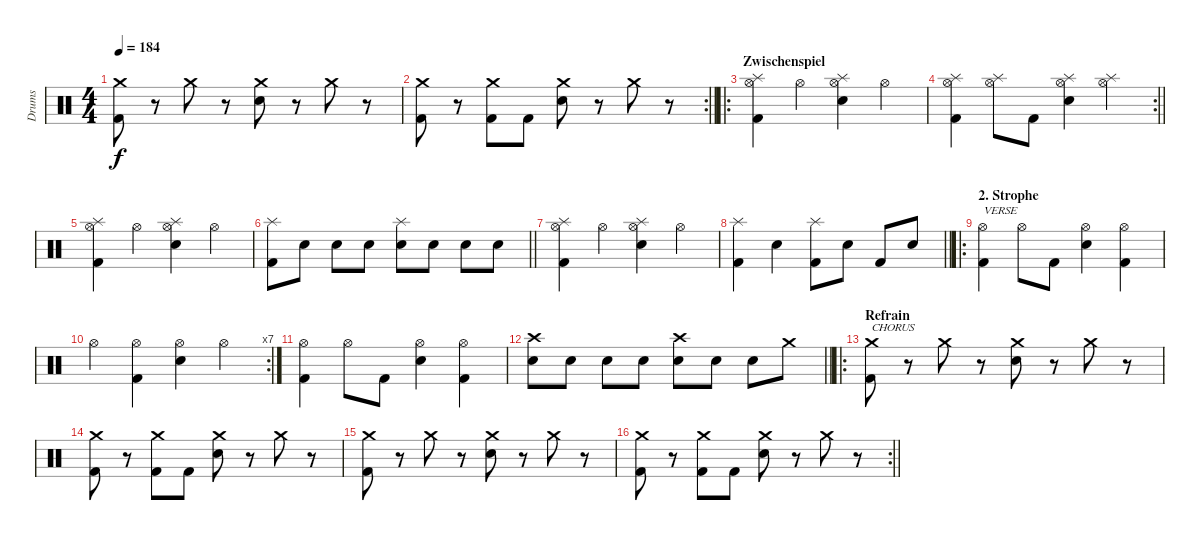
\track ("Drums" "Drums") {instrument percussion}
\staff {score}
\articulation defaults
\ts (4 4)
\tempo 184
\clef neutral
\ks c
("Crash medium (hit)" "Kick (hit) 2").8{dy f} r.8 "Crash medium (hit)".8 r.8 ("Crash medium (hit)" "Electric Snare (hit)").8 r.8 "Crash medium (hit)".8 r.8 |
\rc 2
\barLineRight lightlight
("Crash medium (hit)" "Kick (hit) 2").8 r.8 ("Crash medium (hit)" "Kick (hit) 2").8 "Kick (hit) 2".8 ("Crash medium (hit)" "Electric Snare (hit)").8 r.8 "Crash medium (hit)".8 r.8 |
\ro
\section ("" "Zwischenspiel")
("Splash (hit)" "Hi-Hat (open)" "Kick (hit) 2").4 "Hi-Hat (open)".4 ("Splash (hit)" "Hi-Hat (open)" "Electric Snare (hit)").4 "Hi-Hat (open)".4 |
\rc 2
\barLineRight lightlight
("Splash (hit)" "Hi-Hat (open)" "Kick (hit) 2").4 ("Splash (hit)" "Hi-Hat (open)").8 "Kick (hit) 2".8 ("Splash (hit)" "Hi-Hat (open)" "Electric Snare (hit)").4 ("Splash (hit)" "Hi-Hat (open)").4 |
("Splash (hit)" "Hi-Hat (open)" "Kick (hit) 2").4 "Hi-Hat (open)".4 ("Splash (hit)" "Hi-Hat (open)" "Electric Snare (hit)").4 "Hi-Hat (open)".4 |
\barLineRight lightlight
("Splash (hit)" "Kick (hit) 2").8 "Electric Snare (hit)".8 "Electric Snare (hit)".8 "Electric Snare (hit)".8 ("Splash (hit)" "Electric Snare (hit)").8 "Electric Snare (hit)".8 "Electric Snare (hit)".8 "Electric Snare (hit)".8 |
("Splash (hit)" "Hi-Hat (open)" "Kick (hit) 2").4 "Hi-Hat (open)".4 ("Splash (hit)" "Hi-Hat (open)" "Electric Snare (hit)").4 "Hi-Hat (open)".4 |
\barLineRight lightlight
("Splash (hit)" "Kick (hit) 2").4 "Electric Snare (hit)".4 ("Splash (hit)" "Kick (hit) 2").8 "Electric Snare (hit)".8 "Kick (hit) 2".8 "Electric Snare (hit)".8 |
\ro
\section ("" "2. Strophe")
("Hi-Hat (open)" "Kick (hit) 2").4{txt "VERSE"} "Hi-Hat (open)".8 "Kick (hit) 2".8 ("Hi-Hat (open)" "Electric Snare (hit)").4 ("Hi-Hat (open)" "Kick (hit) 2").4 |
\rc 7 "Hi-Hat (open)".4
("Hi-Hat (open)" "Kick (hit) 2").4 ("Hi-Hat (open)" "Electric Snare (hit)").4 "Hi-Hat (open)".4 |
("Hi-Hat (open)" "Kick (hit) 2").4 "Hi-Hat (open)".8 "Kick (hit) 2".8 ("Hi-Hat (open)" "Electric Snare (hit)").4 ("Hi-Hat (open)" "Kick (hit) 2").4 |
\barLineRight lightlight
("Crash high (hit)" "Electric Snare (hit)").8 "Electric Snare (hit)".8 "Electric Snare (hit)".8 "Electric Snare (hit)".8 ("Crash high (hit)" "Electric Snare (hit)").8 "Electric Snare (hit)".8 "Electric Snare (hit)".8 "Crash medium (hit)".8 |
\ro
\section ("" "Refrain")
("Crash medium (hit)" "Kick (hit) 2").8{txt "CHORUS"} r.8 "Crash medium (hit)".8 r.8 ("Crash medium (hit)" "Electric Snare (hit)").8 r.8 "Crash medium (hit)".8 r.8 |
("Crash medium (hit)" "Kick (hit) 2").8 r.8 ("Crash medium (hit)" "Kick (hit) 2").8 "Kick (hit) 2".8 ("Crash medium (hit)" "Electric Snare (hit)").8 r.8 "Crash medium (hit)".8 r.8 |
("Crash medium (hit)" "Kick (hit) 2").8 r.8 "Crash medium (hit)".8 r.8 ("Crash medium (hit)" "Electric Snare (hit)").8 r.8 "Crash medium (hit)".8 r.8 |
\rc 2
\barLineRight lightlight
("Crash medium (hit)" "Kick (hit) 2").8 r.8 ("Crash medium (hit)" "Kick (hit) 2").8 "Kick (hit) 2".8 ("Crash medium (hit)" "Electric Snare (hit)").8 r.8 "Crash medium (hit)".8 r.8
